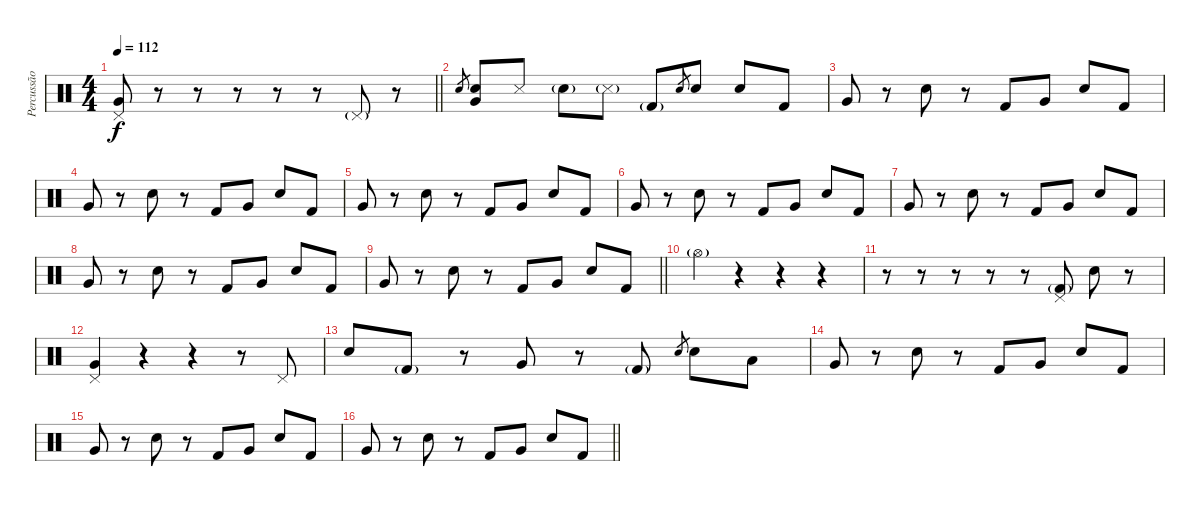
\track ("Percussão" "Percussão") {instrument percussion}
\staff {score}
\articulation defaults
\ts (4 4)
\tempo 112
\clef neutral
\barLineRight lightlight
\ks c
("Pedal Hi-Hat (hit)" "Very Low Tom (hit)").8{dy f} r.8 r.8 r.8 r.8 r.8 "Pedal Hi-Hat (hit)"{g}.8 r.8 |
"Electric Snare (hit)".8{gr} ("Electric Snare (hit)" "Very Low Tom (hit)").8 "Snare (side stick) 3".8 "Electric Snare (hit)"{g}.8 "Snare (side stick) 3"{g}.8 "Kick (hit) 2"{g}.8 "Electric Snare (hit)".8{gr} "Electric Snare (hit)".8 "Electric Snare (hit)".8 "Kick (hit) 2".8 |
"Very Low Tom (hit)".8 r.8 "Electric Snare (hit)".8 r.8 "Kick (hit) 2".8 "Very Low Tom (hit)".8 "Electric Snare (hit)".8 "Kick (hit) 2".8 |
"Very Low Tom (hit)".8 r.8 "Electric Snare (hit)".8 r.8 "Kick (hit) 2".8 "Very Low Tom (hit)".8 "Electric Snare (hit)".8 "Kick (hit) 2".8 |
"Very Low Tom (hit)".8 r.8 "Electric Snare (hit)".8 r.8 "Kick (hit) 2".8 "Very Low Tom (hit)".8 "Electric Snare (hit)".8 "Kick (hit) 2".8 |
"Very Low Tom (hit)".8 r.8 "Electric Snare (hit)".8 r.8 "Kick (hit) 2".8 "Very Low Tom (hit)".8 "Electric Snare (hit)".8 "Kick (hit) 2".8 |
"Very Low Tom (hit)".8 r.8 "Electric Snare (hit)".8 r.8 "Kick (hit) 2".8 "Very Low Tom (hit)".8 "Electric Snare (hit)".8 "Kick (hit) 2".8 |
"Very Low Tom (hit)".8 r.8 "Electric Snare (hit)".8 r.8 "Kick (hit) 2".8 "Very Low Tom (hit)".8 "Electric Snare (hit)".8 "Kick (hit) 2".8 |
\barLineRight lightlight "Very Low Tom (hit)".8
r.8 "Electric Snare (hit)".8 r.8 "Kick (hit) 2".8 "Very Low Tom (hit)".8 "Electric Snare (hit)".8 "Kick (hit) 2".8 |
"Hi-Hat (open)"{g}.4 r.4 r.4 r.4 |
r.8 r.8 r.8 r.8 r.8 ("Pedal Hi-Hat (hit)" "Kick (hit) 2"{g}).8 "Electric Snare (hit)".8 r.8 |
("Pedal Hi-Hat (hit)" "Very Low Tom (hit)").4 r.4 r.4 r.8 "Pedal Hi-Hat (hit)".8 |
"Electric Snare (hit)".8 "Kick (hit) 2"{g}.8 r.8 "Very Low Tom (hit)".8 r.8 "Kick (hit) 2"{g}.8 "Electric Snare (hit)".8{gr} "Electric Snare (hit)".8 "Low Floor Tom (hit)".8 |
"Very Low Tom (hit)".8 r.8 "Electric Snare (hit)".8 r.8 "Kick (hit) 2".8 "Very Low Tom (hit)".8 "Electric Snare (hit)".8 "Kick (hit) 2".8 |
"Very Low Tom (hit)".8 r.8 "Electric Snare (hit)".8 r.8 "Kick (hit) 2".8 "Very Low Tom (hit)".8 "Electric Snare (hit)".8 "Kick (hit) 2".8 |
\barLineRight lightlight "Very Low Tom (hit)".8
r.8 "Electric Snare (hit)".8 r.8 "Kick (hit) 2".8 "Very Low Tom (hit)".8 "Electric Snare (hit)".8 "Kick (hit) 2".8
